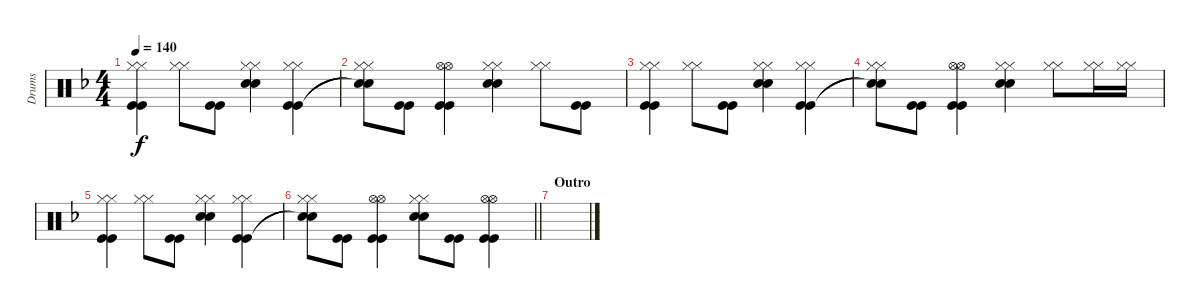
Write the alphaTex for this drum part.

\track ("Drums" "Drums") {instrument percussion}
\staff {score}
\articulation defaults
\ts (4 4)
\tempo 140
\clef neutral
\ks f
("Hi-Hat (closed)" "Hi-Hat (closed)" "Kick (hit)" "Kick (hit)").4{dy f} ("Hi-Hat (closed)" "Hi-Hat (closed)").8 ("Kick (hit)" "Kick (hit)").8 ("Hi-Hat (closed)" "Hi-Hat (closed)" "Snare (hit) 2" "Snare (hit) 2").4 ("Hi-Hat (closed)" "Hi-Hat (closed)" "Kick (hit)" "Kick (hit)").4 |
("Hi-Hat (closed)" "Hi-Hat (closed)" "Snare (hit)"{t} "Snare (hit)"{t}).8 ("Kick (hit)" "Kick (hit)").8 ("Hi-Hat (open)" "Hi-Hat (open)" "Kick (hit)" "Kick (hit)").4 ("Hi-Hat (closed)" "Hi-Hat (closed)" "Snare (hit) 2" "Snare (hit) 2").4 ("Hi-Hat (closed)" "Hi-Hat (closed)").8 ("Kick (hit)" "Kick (hit)").8 |
("Hi-Hat (closed)" "Hi-Hat (closed)" "Kick (hit)" "Kick (hit)").4 ("Hi-Hat (closed)" "Hi-Hat (closed)").8 ("Kick (hit)" "Kick (hit)").8 ("Hi-Hat (closed)" "Hi-Hat (closed)" "Snare (hit) 2" "Snare (hit) 2").4 ("Hi-Hat (closed)" "Hi-Hat (closed)" "Kick (hit)" "Kick (hit)").4 |
("Hi-Hat (closed)" "Hi-Hat (closed)" "Snare (hit)"{t} "Snare (hit)"{t}).8 ("Kick (hit)" "Kick (hit)").8 ("Hi-Hat (open)" "Hi-Hat (open)" "Kick (hit)" "Kick (hit)").4 ("Hi-Hat (closed)" "Hi-Hat (closed)" "Snare (hit) 2" "Snare (hit) 2").4 ("Hi-Hat (closed)" "Hi-Hat (closed)").8 ("Hi-Hat (closed)" "Hi-Hat (closed)").16 ("Hi-Hat (closed)" "Hi-Hat (closed)").16 |
("Hi-Hat (closed)" "Hi-Hat (closed)" "Kick (hit)" "Kick (hit)").4 ("Hi-Hat (closed)" "Hi-Hat (closed)").8 ("Kick (hit)" "Kick (hit)").8 ("Hi-Hat (closed)" "Hi-Hat (closed)" "Snare (hit) 2" "Snare (hit) 2").4 ("Hi-Hat (closed)" "Hi-Hat (closed)" "Kick (hit)" "Kick (hit)").4 |
\barLineRight lightlight
("Hi-Hat (closed)" "Hi-Hat (closed)" "Snare (hit)"{t} "Snare (hit)"{t}).8 ("Kick (hit)" "Kick (hit)").8 ("Hi-Hat (open)" "Hi-Hat (open)" "Kick (hit)" "Kick (hit)").4 ("Hi-Hat (closed)" "Hi-Hat (closed)" "Snare (hit) 2" "Snare (hit) 2").8 ("Kick (hit)" "Kick (hit)").8 ("Hi-Hat (open)" "Hi-Hat (open)" "Kick (hit)" "Kick (hit)").4 |
\section ("" "Outro")
